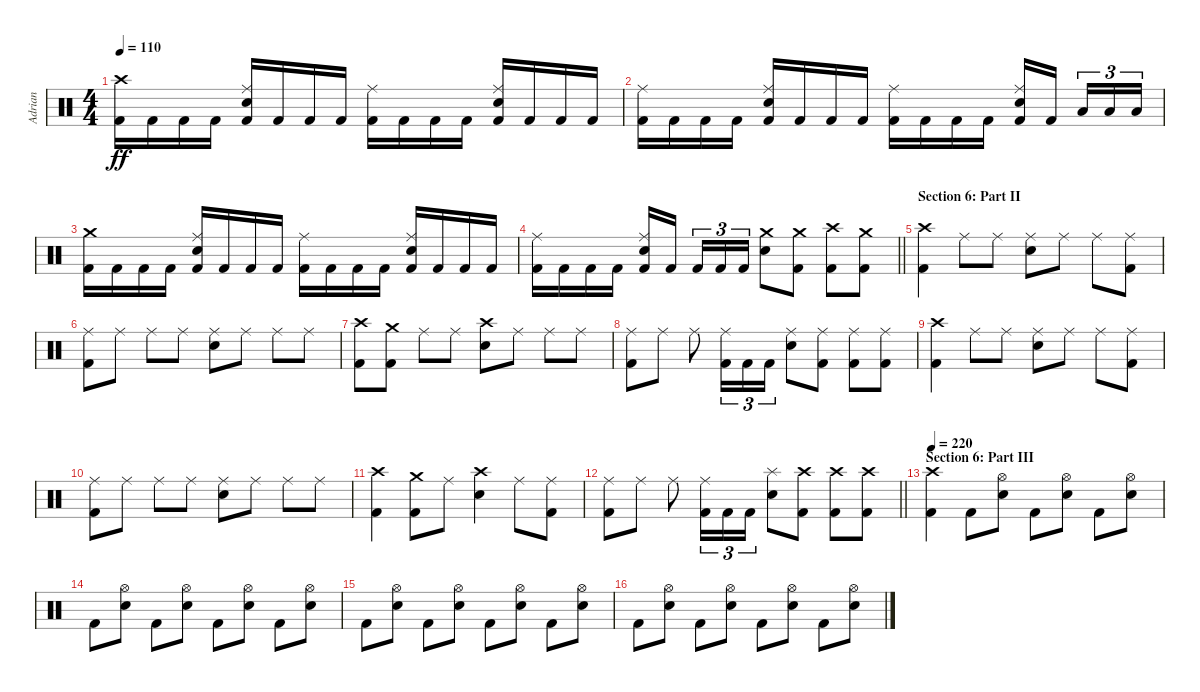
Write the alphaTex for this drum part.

\track ("Adrian" "Adrian") {instrument percussion}
\staff {score}
\articulation defaults
\ts (4 4)
\tempo 110
\clef neutral
\ks c
("Crash high (hit)" "Kick (hit) 2").16{dy ff} "Kick (hit) 2".16 "Kick (hit) 2".16 "Kick (hit) 2".16 ("Ride (middle)" "Electric Snare (hit)" "Kick (hit) 2").16 "Kick (hit) 2".16 "Kick (hit) 2".16 "Kick (hit) 2".16 ("Ride (middle)" "Kick (hit) 2").16 "Kick (hit) 2".16 "Kick (hit) 2".16 "Kick (hit) 2".16 ("Ride (middle)" "Electric Snare (hit)" "Kick (hit) 2").16 "Kick (hit) 2".16 "Kick (hit) 2".16 "Kick (hit) 2".16 |
("Ride (middle)" "Kick (hit) 2").16 "Kick (hit) 2".16 "Kick (hit) 2".16 "Kick (hit) 2".16 ("Ride (middle)" "Electric Snare (hit)" "Kick (hit) 2").16 "Kick (hit) 2".16 "Kick (hit) 2".16 "Kick (hit) 2".16 ("Ride (middle)" "Kick (hit) 2").16 "Kick (hit) 2".16 "Kick (hit) 2".16 "Kick (hit) 2".16 ("Ride (middle)" "Electric Snare (hit)" "Kick (hit) 2").16 "Kick (hit) 2".16{beam splitsecondary} "Low Tom (hit)".16{tu (3 2)} "Low Tom (hit)".16{tu (3 2)} "Low Tom (hit)".16{tu (3 2)} |
("Crash medium (hit)" "Kick (hit) 2").16 "Kick (hit) 2".16 "Kick (hit) 2".16 "Kick (hit) 2".16 ("Ride (middle)" "Electric Snare (hit)" "Kick (hit) 2").16 "Kick (hit) 2".16 "Kick (hit) 2".16 "Kick (hit) 2".16 ("Ride (middle)" "Kick (hit) 2").16 "Kick (hit) 2".16 "Kick (hit) 2".16 "Kick (hit) 2".16 ("Ride (middle)" "Electric Snare (hit)" "Kick (hit) 2").16 "Kick (hit) 2".16 "Kick (hit) 2".16 "Kick (hit) 2".16 |
\barLineRight lightlight
("Ride (middle)" "Kick (hit) 2").16 "Kick (hit) 2".16 "Kick (hit) 2".16 "Kick (hit) 2".16 ("Ride (middle)" "Electric Snare (hit)" "Kick (hit) 2").16 "Kick (hit) 2".16{beam splitsecondary} "Kick (hit) 2".16{tu (3 2)} "Kick (hit) 2".16{tu (3 2)} "Kick (hit) 2".16{tu (3 2)} ("Crash medium (hit)" "Electric Snare (hit)").8 ("Crash medium (hit)" "Kick (hit) 2").8 ("Crash high (hit)" "Kick (hit) 2").8 ("Crash medium (hit)" "Kick (hit) 2").8 |
\section ("" "Section 6: Part II")
("Crash high (hit)" "Kick (hit) 2").4 "Ride (middle)".8 "Ride (middle)".8 ("Ride (middle)" "Electric Snare (hit)").8 "Ride (middle)".8 "Ride (middle)".8 ("Ride (middle)" "Kick (hit) 2").8 |
("Ride (middle)" "Kick (hit) 2").8 "Ride (middle)".8 "Ride (middle)".8 "Ride (middle)".8 ("Ride (middle)" "Electric Snare (hit)").8 "Ride (middle)".8 "Ride (middle)".8 "Ride (middle)".8 |
("Crash high (hit)" "Kick (hit) 2").8 ("Crash medium (hit)" "Kick (hit) 2").8 "Ride (middle)".8 "Ride (middle)".8 ("Crash high (hit)" "Electric Snare (hit)").8 "Ride (middle)".8 "Ride (middle)".8 "Ride (middle)".8 |
("Ride (middle)" "Kick (hit) 2").8 "Ride (middle)".8 "Ride (middle)".8 ("Ride (middle)" "Kick (hit) 2").16{tu (3 2)} "Kick (hit) 2".16{tu (3 2)} "Kick (hit) 2".16{tu (3 2)} ("Ride (middle)" "Electric Snare (hit)").8 ("Ride (middle)" "Kick (hit) 2").8 ("Ride (middle)" "Kick (hit) 2").8 ("Ride (middle)" "Kick (hit) 2").8 |
("Crash high (hit)" "Kick (hit) 2").4 "Ride (middle)".8 "Ride (middle)".8 ("Ride (middle)" "Electric Snare (hit)").8 "Ride (middle)".8 "Ride (middle)".8 ("Ride (middle)" "Kick (hit) 2").8 |
("Ride (middle)" "Kick (hit) 2").8 "Ride (middle)".8 "Ride (middle)".8 "Ride (middle)".8 ("Ride (middle)" "Electric Snare (hit)").8 "Ride (middle)".8 "Ride (middle)".8 "Ride (middle)".8 |
("Crash high (hit)" "Kick (hit) 2").4 ("Crash medium (hit)" "Kick (hit) 2").8 "Ride (middle)".8 ("Crash high (hit)" "Electric Snare (hit)").4 "Ride (middle)".8 ("Ride (middle)" "Kick (hit) 2").8 |
\barLineRight lightlight
("Ride (middle)" "Kick (hit) 2").8 "Ride (middle)".8 "Ride (middle)".8 ("Ride (middle)" "Kick (hit) 2").16{tu (3 2)} "Kick (hit) 2".16{tu (3 2)} "Kick (hit) 2".16{tu (3 2)} ("Splash (hit)" "Electric Snare (hit)").8 ("Crash high (hit)" "Kick (hit) 2").8 ("Crash high (hit)" "Kick (hit) 2").8 ("Crash high (hit)" "Kick (hit) 2").8 |
\section ("" "Section 6: Part III")
\tempo 220
("Crash high (hit)" "Kick (hit) 2").4 "Kick (hit) 2".8 ("Hi-Hat (open)" "Electric Snare (hit)").8 "Kick (hit) 2".8 ("Hi-Hat (open)" "Electric Snare (hit)").8 "Kick (hit) 2".8 ("Hi-Hat (open)" "Electric Snare (hit)").8 |
"Kick (hit) 2".8 ("Hi-Hat (open)" "Electric Snare (hit)").8 "Kick (hit) 2".8 ("Hi-Hat (open)" "Electric Snare (hit)").8 "Kick (hit) 2".8 ("Hi-Hat (open)" "Electric Snare (hit)").8 "Kick (hit) 2".8 ("Hi-Hat (open)" "Electric Snare (hit)").8 |
"Kick (hit) 2".8 ("Hi-Hat (open)" "Electric Snare (hit)").8 "Kick (hit) 2".8 ("Hi-Hat (open)" "Electric Snare (hit)").8 "Kick (hit) 2".8 ("Hi-Hat (open)" "Electric Snare (hit)").8 "Kick (hit) 2".8 ("Hi-Hat (open)" "Electric Snare (hit)").8 |
"Kick (hit) 2".8 ("Hi-Hat (open)" "Electric Snare (hit)").8 "Kick (hit) 2".8 ("Hi-Hat (open)" "Electric Snare (hit)").8 "Kick (hit) 2".8 ("Hi-Hat (open)" "Electric Snare (hit)").8 "Kick (hit) 2".8 ("Hi-Hat (open)" "Electric Snare (hit)").8
